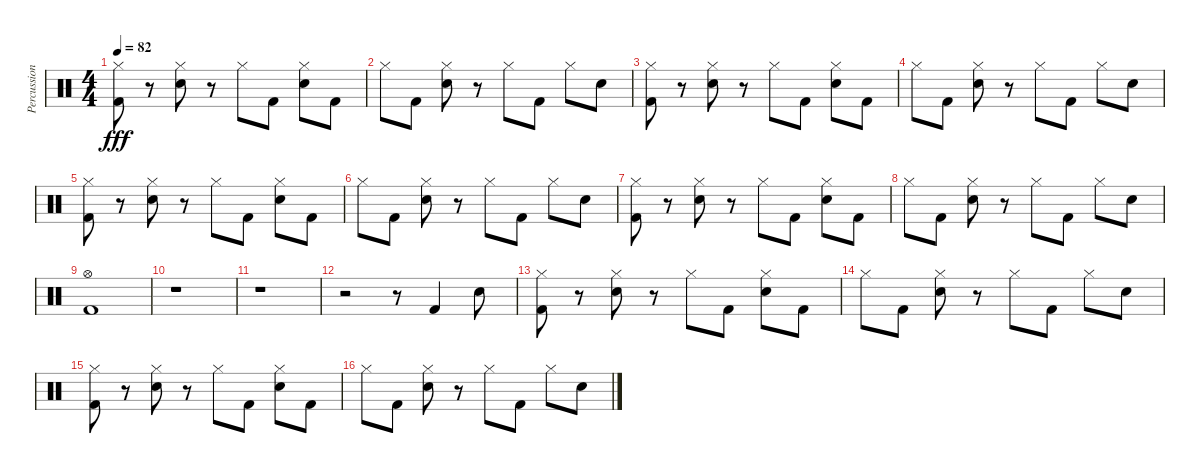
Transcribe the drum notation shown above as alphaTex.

\track ("Percussion" "Percussion") {instrument percussion}
\staff {score}
\articulation defaults
\ts (4 4)
\tempo 82
\clef neutral
\ks c
("Hi-Hat (closed)" "Kick (hit) 2").8{dy fff} r.8 ("Hi-Hat (closed)" "Electric Snare (hit)").8 r.8 "Hi-Hat (closed)".8 "Kick (hit) 2".8 ("Hi-Hat (closed)" "Electric Snare (hit)").8 "Kick (hit) 2".8 |
"Hi-Hat (closed)".8 "Kick (hit) 2".8 ("Hi-Hat (closed)" "Electric Snare (hit)").8 r.8 "Hi-Hat (closed)".8 "Kick (hit) 2".8 "Hi-Hat (closed)".8 "Electric Snare (hit)".8 |
("Hi-Hat (closed)" "Kick (hit) 2").8 r.8 ("Hi-Hat (closed)" "Electric Snare (hit)").8 r.8 "Hi-Hat (closed)".8 "Kick (hit) 2".8 ("Hi-Hat (closed)" "Electric Snare (hit)").8 "Kick (hit) 2".8 |
"Hi-Hat (closed)".8 "Kick (hit) 2".8 ("Hi-Hat (closed)" "Electric Snare (hit)").8 r.8 "Hi-Hat (closed)".8 "Kick (hit) 2".8 "Hi-Hat (closed)".8 "Electric Snare (hit)".8 |
("Hi-Hat (closed)" "Kick (hit) 2").8 r.8 ("Hi-Hat (closed)" "Electric Snare (hit)").8 r.8 "Hi-Hat (closed)".8 "Kick (hit) 2".8 ("Hi-Hat (closed)" "Electric Snare (hit)").8 "Kick (hit) 2".8 |
"Hi-Hat (closed)".8 "Kick (hit) 2".8 ("Hi-Hat (closed)" "Electric Snare (hit)").8 r.8 "Hi-Hat (closed)".8 "Kick (hit) 2".8 "Hi-Hat (closed)".8 "Electric Snare (hit)".8 |
("Hi-Hat (closed)" "Kick (hit) 2").8 r.8 ("Hi-Hat (closed)" "Electric Snare (hit)").8 r.8 "Hi-Hat (closed)".8 "Kick (hit) 2".8 ("Hi-Hat (closed)" "Electric Snare (hit)").8 "Kick (hit) 2".8 |
"Hi-Hat (closed)".8 "Kick (hit) 2".8 ("Hi-Hat (closed)" "Electric Snare (hit)").8 r.8 "Hi-Hat (closed)".8 "Kick (hit) 2".8 "Hi-Hat (closed)".8 "Electric Snare (hit)".8 |
("Hi-Hat (open)" "Kick (hit) 2").1 |
r.1 |
r.1 |
r.2 r.8 "Kick (hit) 2".4 "Electric Snare (hit)".8 |
("Hi-Hat (closed)" "Kick (hit) 2").8 r.8 ("Hi-Hat (closed)" "Electric Snare (hit)").8 r.8 "Hi-Hat (closed)".8 "Kick (hit) 2".8 ("Hi-Hat (closed)" "Electric Snare (hit)").8 "Kick (hit) 2".8 |
"Hi-Hat (closed)".8 "Kick (hit) 2".8 ("Hi-Hat (closed)" "Electric Snare (hit)").8 r.8 "Hi-Hat (closed)".8 "Kick (hit) 2".8 "Hi-Hat (closed)".8 "Electric Snare (hit)".8 |
("Hi-Hat (closed)" "Kick (hit) 2").8 r.8 ("Hi-Hat (closed)" "Electric Snare (hit)").8 r.8 "Hi-Hat (closed)".8 "Kick (hit) 2".8 ("Hi-Hat (closed)" "Electric Snare (hit)").8 "Kick (hit) 2".8 |
"Hi-Hat (closed)".8 "Kick (hit) 2".8 ("Hi-Hat (closed)" "Electric Snare (hit)").8 r.8 "Hi-Hat (closed)".8 "Kick (hit) 2".8 "Hi-Hat (closed)".8 "Electric Snare (hit)".8
